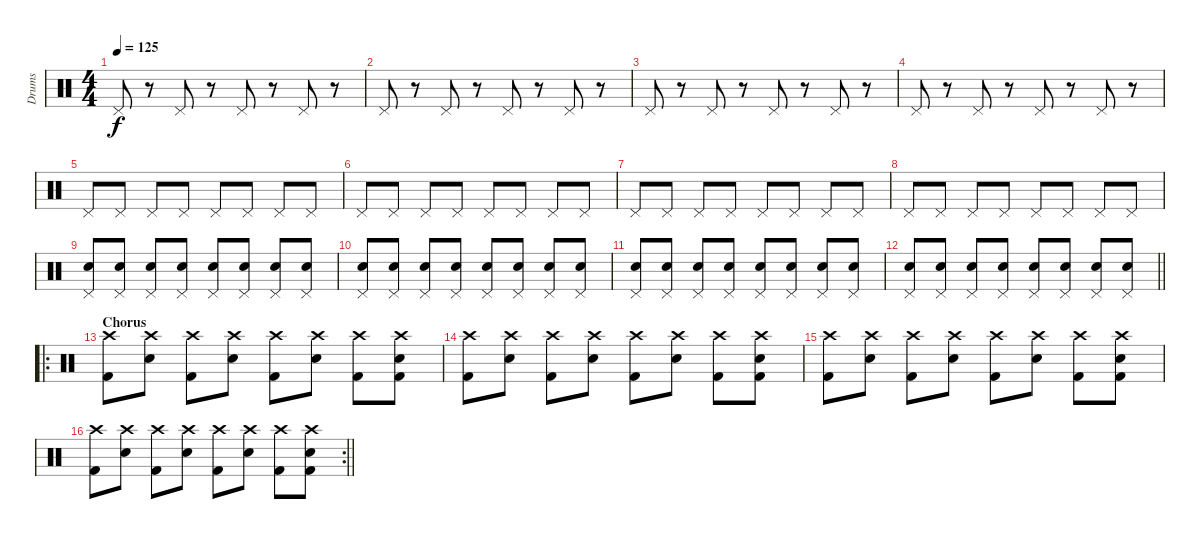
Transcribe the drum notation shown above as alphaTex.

\track ("Drums" "Drums") {instrument percussion}
\staff {score}
\articulation defaults
\ts (4 4)
\tempo 125
\clef neutral
\ks c "Pedal Hi-Hat (hit)".8{dy f}
r.8 "Pedal Hi-Hat (hit)".8 r.8 "Pedal Hi-Hat (hit)".8 r.8 "Pedal Hi-Hat (hit)".8 r.8 |
"Pedal Hi-Hat (hit)".8 r.8 "Pedal Hi-Hat (hit)".8 r.8 "Pedal Hi-Hat (hit)".8 r.8 "Pedal Hi-Hat (hit)".8 r.8 |
"Pedal Hi-Hat (hit)".8 r.8 "Pedal Hi-Hat (hit)".8 r.8 "Pedal Hi-Hat (hit)".8 r.8 "Pedal Hi-Hat (hit)".8 r.8 |
"Pedal Hi-Hat (hit)".8 r.8 "Pedal Hi-Hat (hit)".8 r.8 "Pedal Hi-Hat (hit)".8 r.8 "Pedal Hi-Hat (hit)".8 r.8 |
"Pedal Hi-Hat (hit)".8 "Pedal Hi-Hat (hit)".8 "Pedal Hi-Hat (hit)".8 "Pedal Hi-Hat (hit)".8 "Pedal Hi-Hat (hit)".8 "Pedal Hi-Hat (hit)".8 "Pedal Hi-Hat (hit)".8 "Pedal Hi-Hat (hit)".8 |
"Pedal Hi-Hat (hit)".8 "Pedal Hi-Hat (hit)".8 "Pedal Hi-Hat (hit)".8 "Pedal Hi-Hat (hit)".8 "Pedal Hi-Hat (hit)".8 "Pedal Hi-Hat (hit)".8 "Pedal Hi-Hat (hit)".8 "Pedal Hi-Hat (hit)".8 |
"Pedal Hi-Hat (hit)".8 "Pedal Hi-Hat (hit)".8 "Pedal Hi-Hat (hit)".8 "Pedal Hi-Hat (hit)".8 "Pedal Hi-Hat (hit)".8 "Pedal Hi-Hat (hit)".8 "Pedal Hi-Hat (hit)".8 "Pedal Hi-Hat (hit)".8 |
"Pedal Hi-Hat (hit)".8 "Pedal Hi-Hat (hit)".8 "Pedal Hi-Hat (hit)".8 "Pedal Hi-Hat (hit)".8 "Pedal Hi-Hat (hit)".8 "Pedal Hi-Hat (hit)".8 "Pedal Hi-Hat (hit)".8 "Pedal Hi-Hat (hit)".8 |
("Snare (hit) 2" "Pedal Hi-Hat (hit)").8{volume 2} ("Snare (hit) 2" "Pedal Hi-Hat (hit)").8 ("Snare (hit) 2" "Pedal Hi-Hat (hit)").8{volume 3} ("Snare (hit) 2" "Pedal Hi-Hat (hit)").8 ("Snare (hit) 2" "Pedal Hi-Hat (hit)").8{volume 4} ("Snare (hit) 2" "Pedal Hi-Hat (hit)").8 ("Snare (hit) 2" "Pedal Hi-Hat (hit)").8{volume 5} ("Snare (hit) 2" "Pedal Hi-Hat (hit)").8 |
("Snare (hit) 2" "Pedal Hi-Hat (hit)").8{volume 6} ("Snare (hit) 2" "Pedal Hi-Hat (hit)").8 ("Snare (hit) 2" "Pedal Hi-Hat (hit)").8{volume 7} ("Snare (hit) 2" "Pedal Hi-Hat (hit)").8 ("Snare (hit) 2" "Pedal Hi-Hat (hit)").8{volume 8} ("Snare (hit) 2" "Pedal Hi-Hat (hit)").8 ("Snare (hit) 2" "Pedal Hi-Hat (hit)").8{volume 9} ("Snare (hit) 2" "Pedal Hi-Hat (hit)").8 |
("Snare (hit) 2" "Pedal Hi-Hat (hit)").8{volume 10} ("Snare (hit) 2" "Pedal Hi-Hat (hit)").8 ("Snare (hit) 2" "Pedal Hi-Hat (hit)").8{volume 11} ("Snare (hit) 2" "Pedal Hi-Hat (hit)").8 ("Snare (hit) 2" "Pedal Hi-Hat (hit)").8{volume 12} ("Snare (hit) 2" "Pedal Hi-Hat (hit)").8 ("Snare (hit) 2" "Pedal Hi-Hat (hit)").8{volume 13} ("Snare (hit) 2" "Pedal Hi-Hat (hit)").8 |
\barLineRight lightlight
("Snare (hit) 2" "Pedal Hi-Hat (hit)").8{volume 14} ("Snare (hit) 2" "Pedal Hi-Hat (hit)").8 ("Snare (hit) 2" "Pedal Hi-Hat (hit)").8{volume 15} ("Snare (hit) 2" "Pedal Hi-Hat (hit)").8 ("Snare (hit) 2" "Pedal Hi-Hat (hit)").8{volume 16} ("Snare (hit) 2" "Pedal Hi-Hat (hit)").8 ("Snare (hit) 2" "Pedal Hi-Hat (hit)").8 ("Snare (hit) 2" "Pedal Hi-Hat (hit)").8 |
\ro
\section ("" "Chorus")
("Crash high (hit)" "Kick (hit) 2").8{volume 13} ("Crash high (hit)" "Snare (hit) 2").8 ("Crash high (hit)" "Kick (hit) 2").8 ("Crash high (hit)" "Snare (hit) 2").8 ("Crash high (hit)" "Kick (hit) 2").8 ("Crash high (hit)" "Snare (hit) 2").8 ("Crash high (hit)" "Kick (hit) 2").8 ("Crash high (hit)" "Snare (hit) 2" "Kick (hit) 2").8 |
("Crash high (hit)" "Kick (hit) 2").8{volume 13} ("Crash high (hit)" "Snare (hit) 2").8 ("Crash high (hit)" "Kick (hit) 2").8 ("Crash high (hit)" "Snare (hit) 2").8 ("Crash high (hit)" "Kick (hit) 2").8 ("Crash high (hit)" "Snare (hit) 2").8 ("Crash high (hit)" "Kick (hit) 2").8 ("Crash high (hit)" "Snare (hit) 2" "Kick (hit) 2").8 |
("Crash high (hit)" "Kick (hit) 2").8{volume 13} ("Crash high (hit)" "Snare (hit) 2").8 ("Crash high (hit)" "Kick (hit) 2").8 ("Crash high (hit)" "Snare (hit) 2").8 ("Crash high (hit)" "Kick (hit) 2").8 ("Crash high (hit)" "Snare (hit) 2").8 ("Crash high (hit)" "Kick (hit) 2").8 ("Crash high (hit)" "Snare (hit) 2" "Kick (hit) 2").8 |
\rc 2
\barLineRight lightlight
("Crash high (hit)" "Kick (hit) 2").8{volume 13} ("Crash high (hit)" "Snare (hit) 2").8 ("Crash high (hit)" "Kick (hit) 2").8 ("Crash high (hit)" "Snare (hit) 2").8 ("Crash high (hit)" "Kick (hit) 2").8 ("Crash high (hit)" "Snare (hit) 2").8 ("Crash high (hit)" "Kick (hit) 2").8 ("Crash high (hit)" "Snare (hit) 2" "Kick (hit) 2").8
